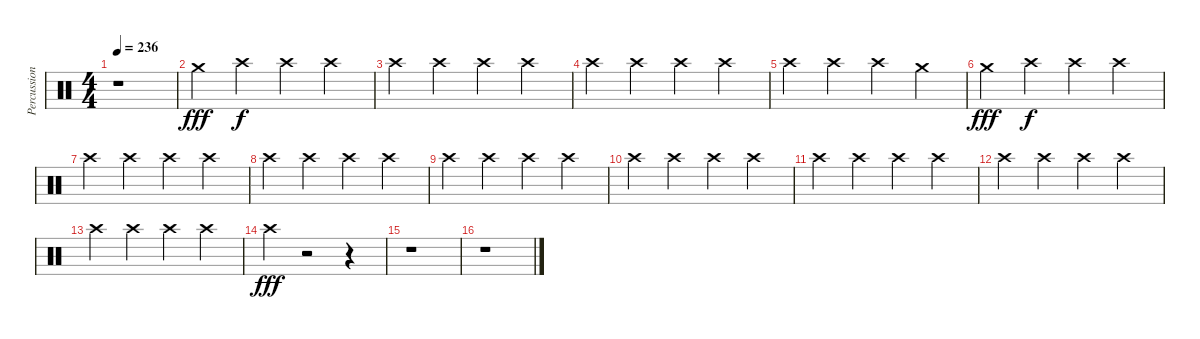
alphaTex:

\track ("Percussions" "Percussion") {instrument percussion}
\staff {score}
\articulation defaults
\ts (4 4)
\tempo 236
\clef neutral
\ks c
r.1{dy fff} |
"Crash medium (hit)".4 "Crash high (hit)"{x}.4{dy f} "Crash high (hit)".4 "Crash high (hit)"{x}.4 |
"Crash high (hit)".4 "Crash high (hit)"{x}.4 "Crash high (hit)".4 "Crash high (hit)"{x}.4 |
"Crash high (hit)".4 "Crash high (hit)"{x}.4 "Crash high (hit)".4 "Crash high (hit)"{x}.4 |
"Crash high (hit)".4 "Crash high (hit)"{x}.4 "Crash high (hit)".4 "Crash medium (hit)"{x}.4 |
"Crash medium (hit)".4{dy fff} "Crash high (hit)"{x}.4{dy f} "Crash high (hit)".4 "Crash high (hit)"{x}.4 |
"Crash high (hit)".4 "Crash high (hit)"{x}.4 "Crash high (hit)".4 "Crash high (hit)"{x}.4 |
"Crash high (hit)".4 "Crash high (hit)"{x}.4 "Crash high (hit)".4 "Crash high (hit)"{x}.4 |
"Crash high (hit)".4 "Crash high (hit)"{x}.4 "Crash high (hit)".4 "Crash high (hit)"{x}.4 |
"Crash high (hit)".4 "Crash high (hit)"{x}.4 "Crash high (hit)".4 "Crash high (hit)"{x}.4 |
"Crash high (hit)".4 "Crash high (hit)"{x}.4 "Crash high (hit)".4 "Crash high (hit)"{x}.4 |
"Crash high (hit)".4 "Crash high (hit)"{x}.4 "Crash high (hit)".4 "Crash high (hit)"{x}.4 |
"Crash high (hit)".4 "Crash high (hit)"{x}.4 "Crash high (hit)".4 "Crash high (hit)"{x}.4 |
"Crash high (hit)".4{dy fff} r.2 r.4 |
r.1 |
r.1
